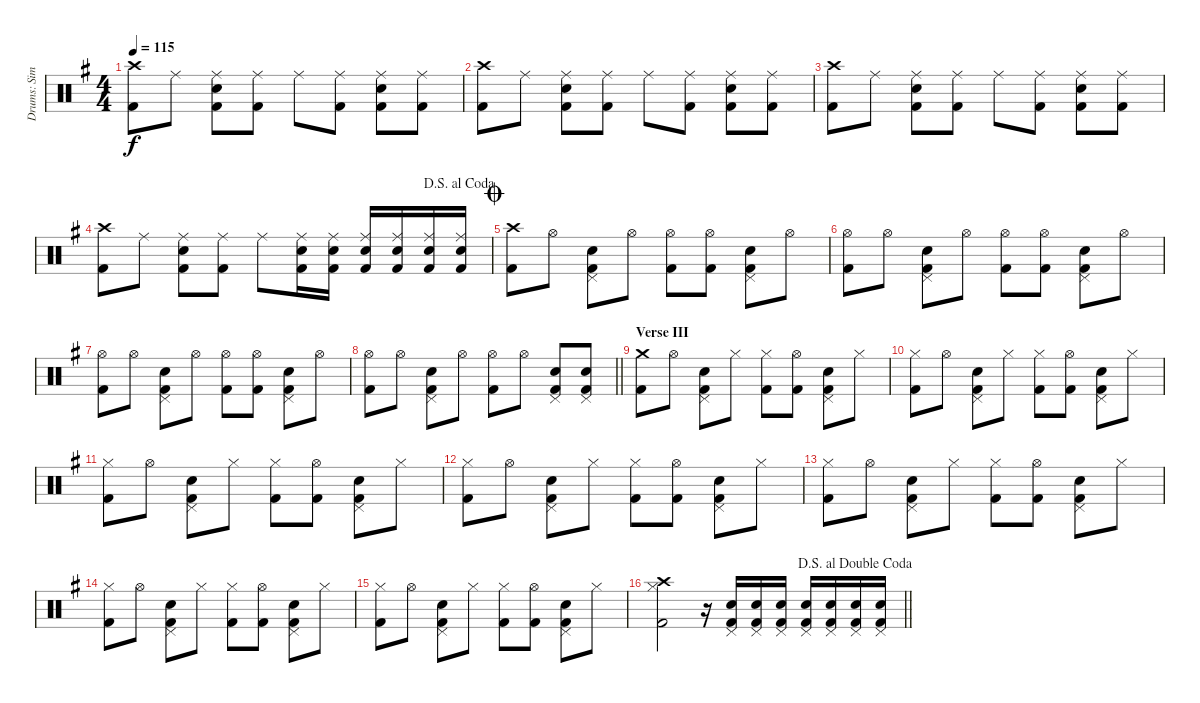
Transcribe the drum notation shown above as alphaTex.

\track ("Drums: Simon" "Drums: Sim") {instrument percussion}
\staff {score}
\articulation defaults
\ts (4 4)
\tempo 115
\clef neutral
\ks g
("Crash high (hit)" "Kick (hit) 2").8{dy f} "Ride (middle)".8 ("Ride (middle)" "Snare (hit) 2" "Kick (hit) 2").8 ("Ride (middle)" "Kick (hit) 2").8 "Ride (middle)".8 ("Ride (middle)" "Kick (hit) 2").8 ("Ride (middle)" "Snare (hit) 2" "Kick (hit) 2").8 ("Ride (middle)" "Kick (hit) 2").8 |
("Crash high (hit)" "Kick (hit) 2").8 "Ride (middle)".8 ("Ride (middle)" "Snare (hit) 2" "Kick (hit) 2").8 ("Ride (middle)" "Kick (hit) 2").8 "Ride (middle)".8 ("Ride (middle)" "Kick (hit) 2").8 ("Ride (middle)" "Snare (hit) 2" "Kick (hit) 2").8 ("Ride (middle)" "Kick (hit) 2").8 |
("Crash high (hit)" "Kick (hit) 2").8 "Ride (middle)".8 ("Ride (middle)" "Snare (hit) 2" "Kick (hit) 2").8 ("Ride (middle)" "Kick (hit) 2").8 "Ride (middle)".8 ("Ride (middle)" "Kick (hit) 2").8 ("Ride (middle)" "Snare (hit) 2" "Kick (hit) 2").8 ("Ride (middle)" "Kick (hit) 2").8 |
\jump dalsegnoalcoda
("Crash high (hit)" "Kick (hit) 2").8 "Ride (middle)".8 ("Ride (middle)" "Snare (hit) 2" "Kick (hit) 2").8 ("Ride (middle)" "Kick (hit) 2").8 "Ride (middle)".8 ("Ride (middle)" "Snare (hit) 2" "Kick (hit) 2").16 ("Ride (middle)" "Snare (hit) 2" "Kick (hit) 2").16 ("Ride (middle)" "Snare (hit) 2" "Kick (hit) 2").16 ("Ride (middle)" "Snare (hit) 2" "Kick (hit) 2").16 ("Ride (middle)" "Snare (hit) 2" "Kick (hit) 2").16 ("Ride (middle)" "Snare (hit) 2" "Kick (hit) 2").16 |
\jump coda
("Crash high (hit)" "Kick (hit) 2").8 "Hi-Hat (open)".8 ("Pedal Hi-Hat (hit)" "Snare (hit) 2" "Kick (hit) 2").8 "Hi-Hat (open)".8 ("Hi-Hat (open)" "Kick (hit) 2").8 ("Hi-Hat (open)" "Kick (hit) 2").8 ("Pedal Hi-Hat (hit)" "Snare (hit) 2" "Kick (hit) 2").8 "Hi-Hat (open)".8 |
("Hi-Hat (open)" "Kick (hit) 2").8 "Hi-Hat (open)".8 ("Pedal Hi-Hat (hit)" "Snare (hit) 2" "Kick (hit) 2").8 "Hi-Hat (open)".8 ("Hi-Hat (open)" "Kick (hit) 2").8 ("Hi-Hat (open)" "Kick (hit) 2").8 ("Pedal Hi-Hat (hit)" "Snare (hit) 2" "Kick (hit) 2").8 "Hi-Hat (open)".8 |
("Hi-Hat (open)" "Kick (hit) 2").8 "Hi-Hat (open)".8 ("Pedal Hi-Hat (hit)" "Snare (hit) 2" "Kick (hit) 2").8 "Hi-Hat (open)".8 ("Hi-Hat (open)" "Kick (hit) 2").8 ("Hi-Hat (open)" "Kick (hit) 2").8 ("Pedal Hi-Hat (hit)" "Snare (hit) 2" "Kick (hit) 2").8 "Hi-Hat (open)".8 |
\barLineRight lightlight
("Hi-Hat (open)" "Kick (hit) 2").8 "Hi-Hat (open)".8 ("Pedal Hi-Hat (hit)" "Snare (hit) 2" "Kick (hit) 2").8 "Hi-Hat (open)".8 ("Hi-Hat (open)" "Kick (hit) 2").8 "Hi-Hat (open)".8 ("Pedal Hi-Hat (hit)" "Snare (hit) 2" "Kick (hit) 2").8 ("Pedal Hi-Hat (hit)" "Snare (hit) 2" "Kick (hit) 2").8 |
\section ("" "Verse III")
("Crash medium (hit)" "Kick (hit) 2").8 "Hi-Hat (open)".8 ("Pedal Hi-Hat (hit)" "Snare (hit) 2" "Kick (hit) 2").8 "Hi-Hat (closed)".8 ("Hi-Hat (closed)" "Kick (hit) 2").8 ("Hi-Hat (open)" "Kick (hit) 2").8 ("Pedal Hi-Hat (hit)" "Snare (hit) 2" "Kick (hit) 2").8 "Hi-Hat (closed)".8 |
("Hi-Hat (closed)" "Kick (hit) 2").8 "Hi-Hat (open)".8 ("Pedal Hi-Hat (hit)" "Snare (hit) 2" "Kick (hit) 2").8 "Hi-Hat (closed)".8 ("Hi-Hat (closed)" "Kick (hit) 2").8 ("Hi-Hat (open)" "Kick (hit) 2").8 ("Pedal Hi-Hat (hit)" "Snare (hit) 2" "Kick (hit) 2").8 "Hi-Hat (closed)".8 |
("Hi-Hat (closed)" "Kick (hit) 2").8 "Hi-Hat (open)".8 ("Pedal Hi-Hat (hit)" "Snare (hit) 2" "Kick (hit) 2").8 "Hi-Hat (closed)".8 ("Hi-Hat (closed)" "Kick (hit) 2").8 ("Hi-Hat (open)" "Kick (hit) 2").8 ("Pedal Hi-Hat (hit)" "Snare (hit) 2" "Kick (hit) 2").8 "Hi-Hat (closed)".8 |
("Hi-Hat (closed)" "Kick (hit) 2").8 "Hi-Hat (open)".8 ("Pedal Hi-Hat (hit)" "Snare (hit) 2" "Kick (hit) 2").8 "Hi-Hat (closed)".8 ("Hi-Hat (closed)" "Kick (hit) 2").8 ("Hi-Hat (open)" "Kick (hit) 2").8 ("Pedal Hi-Hat (hit)" "Snare (hit) 2" "Kick (hit) 2").8 "Hi-Hat (closed)".8 |
("Hi-Hat (closed)" "Kick (hit) 2").8 "Hi-Hat (open)".8 ("Pedal Hi-Hat (hit)" "Snare (hit) 2" "Kick (hit) 2").8 "Hi-Hat (closed)".8 ("Hi-Hat (closed)" "Kick (hit) 2").8 ("Hi-Hat (open)" "Kick (hit) 2").8 ("Pedal Hi-Hat (hit)" "Snare (hit) 2" "Kick (hit) 2").8 "Hi-Hat (closed)".8 |
("Hi-Hat (closed)" "Kick (hit) 2").8 "Hi-Hat (open)".8 ("Pedal Hi-Hat (hit)" "Snare (hit) 2" "Kick (hit) 2").8 "Hi-Hat (closed)".8 ("Hi-Hat (closed)" "Kick (hit) 2").8 ("Hi-Hat (open)" "Kick (hit) 2").8 ("Pedal Hi-Hat (hit)" "Snare (hit) 2" "Kick (hit) 2").8 "Hi-Hat (closed)".8 |
("Hi-Hat (closed)" "Kick (hit) 2").8 "Hi-Hat (open)".8 ("Pedal Hi-Hat (hit)" "Snare (hit) 2" "Kick (hit) 2").8 "Hi-Hat (closed)".8 ("Hi-Hat (closed)" "Kick (hit) 2").8 ("Hi-Hat (open)" "Kick (hit) 2").8 ("Pedal Hi-Hat (hit)" "Snare (hit) 2" "Kick (hit) 2").8 "Hi-Hat (closed)".8 |
\jump dalsegnoaldoublecoda
\barLineRight lightlight
("Crash high (hit)" "Hi-Hat (closed)" "Kick (hit) 2").2 r.16 ("Pedal Hi-Hat (hit)" "Snare (hit) 2" "Kick (hit) 2").16 ("Pedal Hi-Hat (hit)" "Snare (hit) 2" "Kick (hit) 2").16 ("Pedal Hi-Hat (hit)" "Snare (hit) 2" "Kick (hit) 2").16 ("Pedal Hi-Hat (hit)" "Snare (hit) 2" "Kick (hit) 2").16 ("Pedal Hi-Hat (hit)" "Snare (hit) 2" "Kick (hit) 2").16 ("Pedal Hi-Hat (hit)" "Snare (hit) 2" "Kick (hit) 2").16 ("Pedal Hi-Hat (hit)" "Snare (hit) 2" "Kick (hit) 2").16
